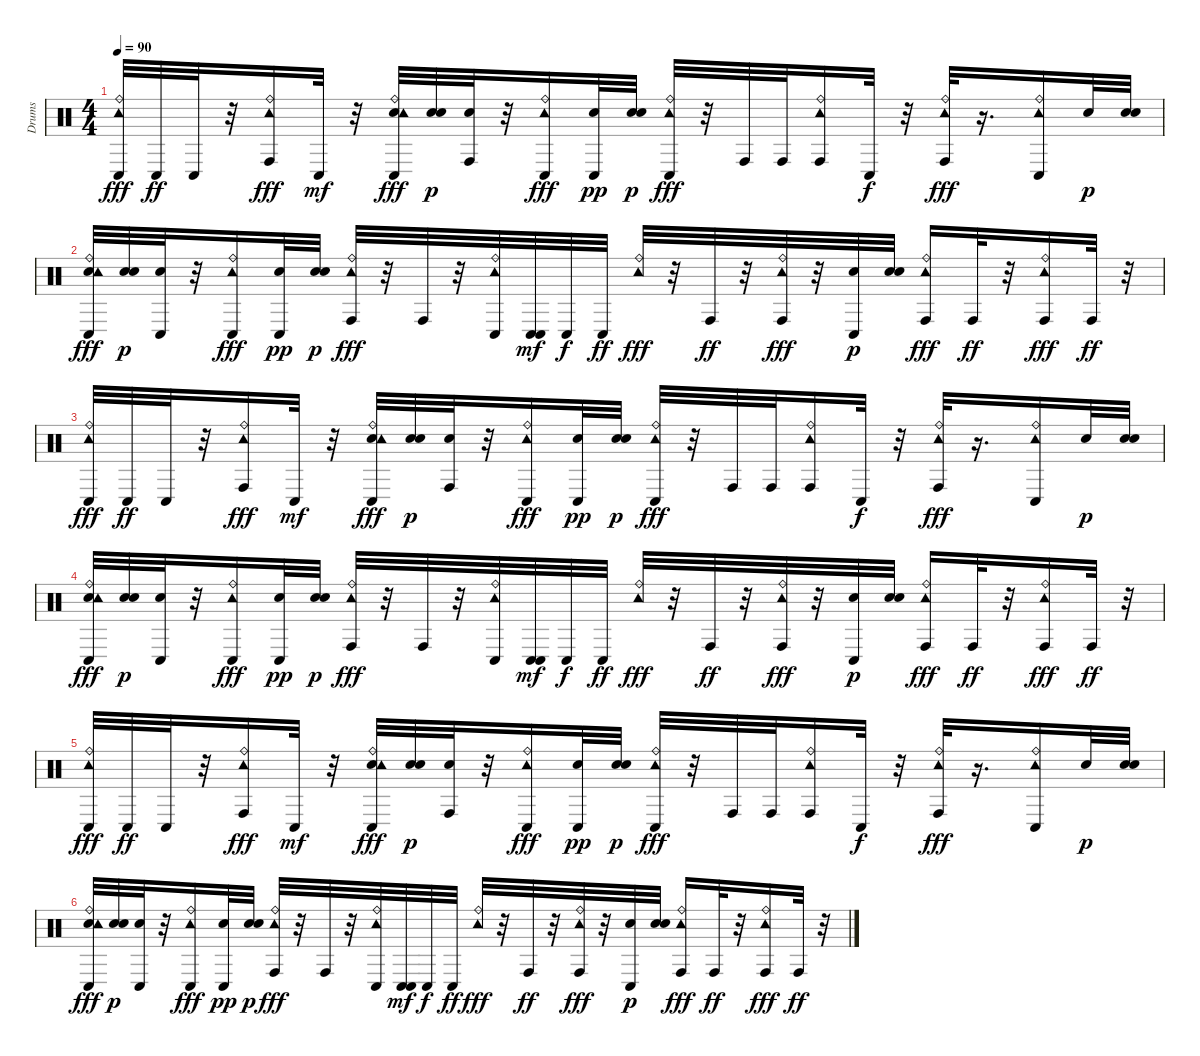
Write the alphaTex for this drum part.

\track ("Drums" "Drums") {instrument percussion}
\staff {score}
\articulation defaults
\ts (4 4)
\tempo 90
\clef neutral
\ks c
("Conga low (hit)" "Ride (bell)" "Tambourine (hit)").32{dy fff} "Conga low (hit)".32{dy ff} "Conga low (hit)".32 r.32 ("Conga high (hit)" "Ride (bell)" "Tambourine (hit)").16{dy fff} "Conga low (hit)".32{dy mf} r.32 ("Conga low (hit)" "Ride (bell)" "Electric Snare (hit)" "Tambourine (hit)").32{dy fff} ("Electric Snare (hit)" "Electric Snare (hit)").32{dy p} ("Conga high (hit)" "Electric Snare (hit)").32 r.32 ("Conga low (hit)" "Ride (bell)" "Tambourine (hit)").16{dy fff} ("Conga low (hit)" "Electric Snare (hit)").32{dy pp} ("Electric Snare (hit)" "Electric Snare (hit)").32{dy p} ("Ride (bell)" "Tambourine (hit)" "Conga low (hit)").32{dy fff} r.32 "Conga high (hit)".32 "Conga high (hit)".32 ("Ride (bell)" "Tambourine (hit)" "Conga high (hit)").16 "Conga low (hit)".32{dy f} r.32 ("Conga high (hit)" "Ride (bell)" "Tambourine (hit)").32{dy fff} r.16{d} ("Conga low (hit)" "Ride (bell)" "Tambourine (hit)").16 "Electric Snare (hit)".32{dy p} ("Electric Snare (hit)" "Electric Snare (hit)").32 |
("Conga low (hit)" "Ride (bell)" "Electric Snare (hit)" "Tambourine (hit)").32{dy fff} ("Electric Snare (hit)" "Electric Snare (hit)").32{dy p} ("Conga low (hit)" "Electric Snare (hit)").32 r.32 ("Conga low (hit)" "Ride (bell)" "Tambourine (hit)").16{dy fff} ("Conga low (hit)" "Electric Snare (hit)").32{dy pp} ("Electric Snare (hit)" "Electric Snare (hit)").32{dy p} ("Conga high (hit)" "Ride (bell)" "Tambourine (hit)").32{dy fff} r.32 "Conga high (hit)".32 r.32 ("Conga low (hit)" "Ride (bell)" "Tambourine (hit)").32 ("Conga low (hit)" "Conga low (hit)").32{dy mf} "Conga low (hit)".32{dy f} "Conga low (hit)".32{dy ff} ("Ride (bell)" "Tambourine (hit)").32{dy fff} r.32 "Conga high (hit)".32{dy ff} r.32 ("Ride (bell)" "Conga high (hit)" "Tambourine (hit)").32{dy fff} r.32 ("Conga low (hit)" "Electric Snare (hit)").32{dy p} ("Electric Snare (hit)" "Electric Snare (hit)").32 ("Conga high (hit)" "Ride (bell)" "Tambourine (hit)").16{dy fff} "Conga high (hit)".32{dy ff} r.32 ("Ride (bell)" "Conga high (hit)" "Tambourine (hit)").16{dy fff} "Conga high (hit)".32{dy ff} r.32 |
("Conga low (hit)" "Ride (bell)" "Tambourine (hit)").32{dy fff volume 0} "Conga low (hit)".32{dy ff} "Conga low (hit)".32 r.32 ("Conga high (hit)" "Ride (bell)" "Tambourine (hit)").16{dy fff} "Conga low (hit)".32{dy mf} r.32 ("Conga low (hit)" "Ride (bell)" "Electric Snare (hit)" "Tambourine (hit)").32{dy fff} ("Electric Snare (hit)" "Electric Snare (hit)").32{dy p} ("Conga high (hit)" "Electric Snare (hit)").32 r.32 ("Conga low (hit)" "Ride (bell)" "Tambourine (hit)").16{dy fff} ("Conga low (hit)" "Electric Snare (hit)").32{dy pp} ("Electric Snare (hit)" "Electric Snare (hit)").32{dy p} ("Ride (bell)" "Tambourine (hit)" "Conga low (hit)").32{dy fff} r.32 "Conga high (hit)".32 "Conga high (hit)".32 ("Ride (bell)" "Tambourine (hit)" "Conga high (hit)").16 "Conga low (hit)".32{dy f} r.32 ("Conga high (hit)" "Ride (bell)" "Tambourine (hit)").32{dy fff} r.16{d} ("Conga low (hit)" "Ride (bell)" "Tambourine (hit)").16 "Electric Snare (hit)".32{dy p} ("Electric Snare (hit)" "Electric Snare (hit)").32 |
("Conga low (hit)" "Ride (bell)" "Electric Snare (hit)" "Tambourine (hit)").32{dy fff} ("Electric Snare (hit)" "Electric Snare (hit)").32{dy p} ("Conga low (hit)" "Electric Snare (hit)").32 r.32 ("Conga low (hit)" "Ride (bell)" "Tambourine (hit)").16{dy fff} ("Conga low (hit)" "Electric Snare (hit)").32{dy pp} ("Electric Snare (hit)" "Electric Snare (hit)").32{dy p} ("Conga high (hit)" "Ride (bell)" "Tambourine (hit)").32{dy fff} r.32 "Conga high (hit)".32 r.32 ("Conga low (hit)" "Ride (bell)" "Tambourine (hit)").32 ("Conga low (hit)" "Conga low (hit)").32{dy mf} "Conga low (hit)".32{dy f} "Conga low (hit)".32{dy ff} ("Ride (bell)" "Tambourine (hit)").32{dy fff} r.32 "Conga high (hit)".32{dy ff} r.32 ("Ride (bell)" "Conga high (hit)" "Tambourine (hit)").32{dy fff} r.32 ("Conga low (hit)" "Electric Snare (hit)").32{dy p} ("Electric Snare (hit)" "Electric Snare (hit)").32 ("Conga high (hit)" "Ride (bell)" "Tambourine (hit)").16{dy fff} "Conga high (hit)".32{dy ff} r.32 ("Ride (bell)" "Conga high (hit)" "Tambourine (hit)").16{dy fff} "Conga high (hit)".32{dy ff} r.32 |
("Conga low (hit)" "Ride (bell)" "Tambourine (hit)").32{dy fff} "Conga low (hit)".32{dy ff} "Conga low (hit)".32 r.32 ("Conga high (hit)" "Ride (bell)" "Tambourine (hit)").16{dy fff} "Conga low (hit)".32{dy mf} r.32 ("Conga low (hit)" "Ride (bell)" "Electric Snare (hit)" "Tambourine (hit)").32{dy fff} ("Electric Snare (hit)" "Electric Snare (hit)").32{dy p} ("Conga high (hit)" "Electric Snare (hit)").32 r.32 ("Conga low (hit)" "Ride (bell)" "Tambourine (hit)").16{dy fff} ("Conga low (hit)" "Electric Snare (hit)").32{dy pp} ("Electric Snare (hit)" "Electric Snare (hit)").32{dy p} ("Ride (bell)" "Tambourine (hit)" "Conga low (hit)").32{dy fff} r.32 "Conga high (hit)".32 "Conga high (hit)".32 ("Ride (bell)" "Tambourine (hit)" "Conga high (hit)").16 "Conga low (hit)".32{dy f} r.32 ("Conga high (hit)" "Ride (bell)" "Tambourine (hit)").32{dy fff} r.16{d} ("Conga low (hit)" "Ride (bell)" "Tambourine (hit)").16 "Electric Snare (hit)".32{dy p} ("Electric Snare (hit)" "Electric Snare (hit)").32 |
("Conga low (hit)" "Ride (bell)" "Electric Snare (hit)" "Tambourine (hit)").32{dy fff} ("Electric Snare (hit)" "Electric Snare (hit)").32{dy p} ("Conga low (hit)" "Electric Snare (hit)").32 r.32 ("Conga low (hit)" "Ride (bell)" "Tambourine (hit)").16{dy fff} ("Conga low (hit)" "Electric Snare (hit)").32{dy pp} ("Electric Snare (hit)" "Electric Snare (hit)").32{dy p} ("Conga high (hit)" "Ride (bell)" "Tambourine (hit)").32{dy fff} r.32 "Conga high (hit)".32 r.32 ("Conga low (hit)" "Ride (bell)" "Tambourine (hit)").32 ("Conga low (hit)" "Conga low (hit)").32{dy mf} "Conga low (hit)".32{dy f} "Conga low (hit)".32{dy ff} ("Ride (bell)" "Tambourine (hit)").32{dy fff} r.32 "Conga high (hit)".32{dy ff} r.32 ("Ride (bell)" "Conga high (hit)" "Tambourine (hit)").32{dy fff} r.32 ("Conga low (hit)" "Electric Snare (hit)").32{dy p} ("Electric Snare (hit)" "Electric Snare (hit)").32 ("Conga high (hit)" "Ride (bell)" "Tambourine (hit)").16{dy fff} "Conga high (hit)".32{dy ff} r.32 ("Ride (bell)" "Conga high (hit)" "Tambourine (hit)").16{dy fff} "Conga high (hit)".32{dy ff} r.32
